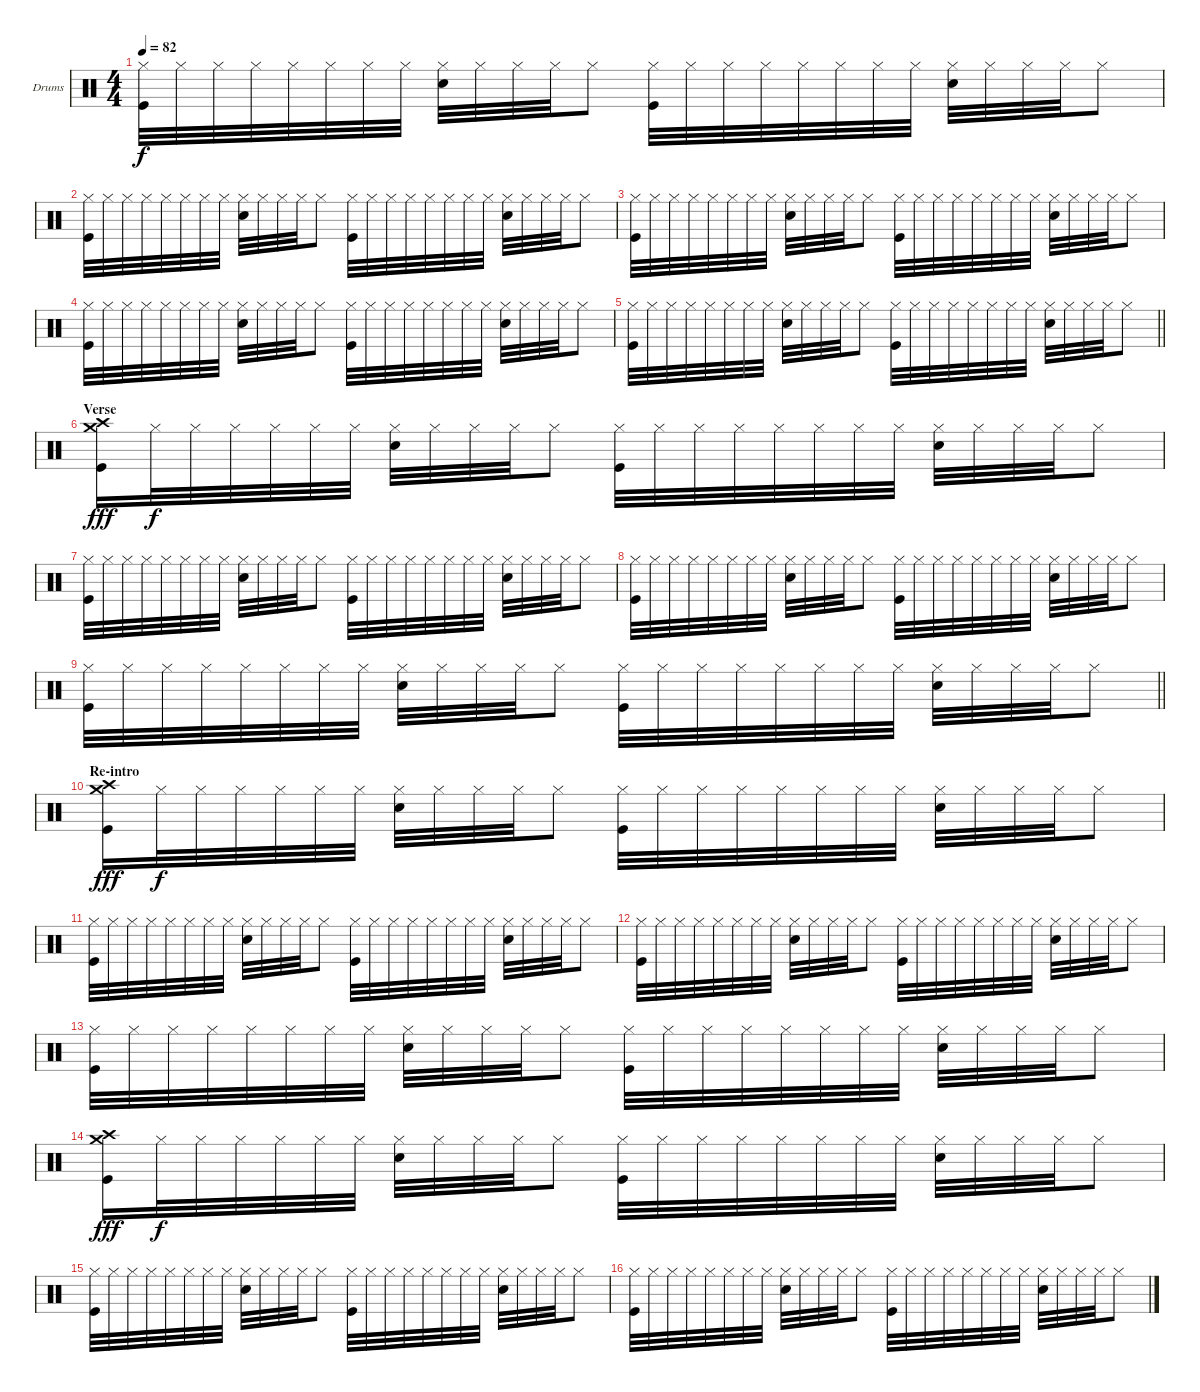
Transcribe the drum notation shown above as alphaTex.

\bracketExtendMode groupsimilarinstruments
\firstSystemTrackNameOrientation horizontal
\otherSystemsTrackNameOrientation horizontal
\track ("Drumkit" "Drums") {instrument percussion}
\staff {score}
\articulation defaults
\ts (4 4)
\tempo 82
\clef neutral
\ks c
("Hi-Hat (closed)" "Kick (hit)").32{dy f} "Hi-Hat (closed)".32 "Hi-Hat (closed)".32 "Hi-Hat (closed)".32 "Hi-Hat (closed)".32 "Hi-Hat (closed)".32 "Hi-Hat (closed)".32 "Hi-Hat (closed)".32 ("Hi-Hat (closed)" "Snare (hit) 2").32 "Hi-Hat (closed)".32 "Hi-Hat (closed)".32 "Hi-Hat (closed)".32 "Hi-Hat (closed)".8 ("Hi-Hat (closed)" "Kick (hit)").32 "Hi-Hat (closed)".32 "Hi-Hat (closed)".32 "Hi-Hat (closed)".32 "Hi-Hat (closed)".32 "Hi-Hat (closed)".32 "Hi-Hat (closed)".32 "Hi-Hat (closed)".32 ("Hi-Hat (closed)" "Snare (hit) 2").32 "Hi-Hat (closed)".32 "Hi-Hat (closed)".32 "Hi-Hat (closed)".32 "Hi-Hat (closed)".8 |
("Hi-Hat (closed)" "Kick (hit)").32 "Hi-Hat (closed)".32 "Hi-Hat (closed)".32 "Hi-Hat (closed)".32 "Hi-Hat (closed)".32 "Hi-Hat (closed)".32 "Hi-Hat (closed)".32 "Hi-Hat (closed)".32 ("Hi-Hat (closed)" "Snare (hit) 2").32 "Hi-Hat (closed)".32 "Hi-Hat (closed)".32 "Hi-Hat (closed)".32 "Hi-Hat (closed)".8 ("Hi-Hat (closed)" "Kick (hit)").32 "Hi-Hat (closed)".32 "Hi-Hat (closed)".32 "Hi-Hat (closed)".32 "Hi-Hat (closed)".32 "Hi-Hat (closed)".32 "Hi-Hat (closed)".32 "Hi-Hat (closed)".32 ("Hi-Hat (closed)" "Snare (hit) 2").32 "Hi-Hat (closed)".32 "Hi-Hat (closed)".32 "Hi-Hat (closed)".32 "Hi-Hat (closed)".8 |
("Hi-Hat (closed)" "Kick (hit)").32 "Hi-Hat (closed)".32 "Hi-Hat (closed)".32 "Hi-Hat (closed)".32 "Hi-Hat (closed)".32 "Hi-Hat (closed)".32 "Hi-Hat (closed)".32 "Hi-Hat (closed)".32 ("Hi-Hat (closed)" "Snare (hit) 2").32 "Hi-Hat (closed)".32 "Hi-Hat (closed)".32 "Hi-Hat (closed)".32 "Hi-Hat (closed)".8 ("Hi-Hat (closed)" "Kick (hit)").32 "Hi-Hat (closed)".32 "Hi-Hat (closed)".32 "Hi-Hat (closed)".32 "Hi-Hat (closed)".32 "Hi-Hat (closed)".32 "Hi-Hat (closed)".32 "Hi-Hat (closed)".32 ("Hi-Hat (closed)" "Snare (hit) 2").32 "Hi-Hat (closed)".32 "Hi-Hat (closed)".32 "Hi-Hat (closed)".32 "Hi-Hat (closed)".8 |
("Hi-Hat (closed)" "Kick (hit)").32 "Hi-Hat (closed)".32 "Hi-Hat (closed)".32 "Hi-Hat (closed)".32 "Hi-Hat (closed)".32 "Hi-Hat (closed)".32 "Hi-Hat (closed)".32 "Hi-Hat (closed)".32 ("Hi-Hat (closed)" "Snare (hit) 2").32 "Hi-Hat (closed)".32 "Hi-Hat (closed)".32 "Hi-Hat (closed)".32 "Hi-Hat (closed)".8 ("Hi-Hat (closed)" "Kick (hit)").32 "Hi-Hat (closed)".32 "Hi-Hat (closed)".32 "Hi-Hat (closed)".32 "Hi-Hat (closed)".32 "Hi-Hat (closed)".32 "Hi-Hat (closed)".32 "Hi-Hat (closed)".32 ("Hi-Hat (closed)" "Snare (hit) 2").32 "Hi-Hat (closed)".32 "Hi-Hat (closed)".32 "Hi-Hat (closed)".32 "Hi-Hat (closed)".8 |
\barLineRight lightlight
("Hi-Hat (closed)" "Kick (hit)").32 "Hi-Hat (closed)".32 "Hi-Hat (closed)".32 "Hi-Hat (closed)".32 "Hi-Hat (closed)".32 "Hi-Hat (closed)".32 "Hi-Hat (closed)".32 "Hi-Hat (closed)".32 ("Hi-Hat (closed)" "Snare (hit) 2").32 "Hi-Hat (closed)".32 "Hi-Hat (closed)".32 "Hi-Hat (closed)".32 "Hi-Hat (closed)".8 ("Hi-Hat (closed)" "Kick (hit)").32 "Hi-Hat (closed)".32 "Hi-Hat (closed)".32 "Hi-Hat (closed)".32 "Hi-Hat (closed)".32 "Hi-Hat (closed)".32 "Hi-Hat (closed)".32 "Hi-Hat (closed)".32 ("Hi-Hat (closed)" "Snare (hit) 2").32 "Hi-Hat (closed)".32 "Hi-Hat (closed)".32 "Hi-Hat (closed)".32 "Hi-Hat (closed)".8 |
\section ("" "Verse")
("Crash medium (hit)" "Crash high (hit)" "Kick (hit)").16{dy fff} "Hi-Hat (closed)".32{dy f} "Hi-Hat (closed)".32 "Hi-Hat (closed)".32 "Hi-Hat (closed)".32 "Hi-Hat (closed)".32 "Hi-Hat (closed)".32 ("Hi-Hat (closed)" "Snare (hit) 2").32 "Hi-Hat (closed)".32 "Hi-Hat (closed)".32 "Hi-Hat (closed)".32 "Hi-Hat (closed)".8 ("Hi-Hat (closed)" "Kick (hit)").32 "Hi-Hat (closed)".32 "Hi-Hat (closed)".32 "Hi-Hat (closed)".32 "Hi-Hat (closed)".32 "Hi-Hat (closed)".32 "Hi-Hat (closed)".32 "Hi-Hat (closed)".32 ("Hi-Hat (closed)" "Snare (hit) 2").32 "Hi-Hat (closed)".32 "Hi-Hat (closed)".32 "Hi-Hat (closed)".32 "Hi-Hat (closed)".8 |
("Hi-Hat (closed)" "Kick (hit)").32 "Hi-Hat (closed)".32 "Hi-Hat (closed)".32 "Hi-Hat (closed)".32 "Hi-Hat (closed)".32 "Hi-Hat (closed)".32 "Hi-Hat (closed)".32 "Hi-Hat (closed)".32 ("Hi-Hat (closed)" "Snare (hit) 2").32 "Hi-Hat (closed)".32 "Hi-Hat (closed)".32 "Hi-Hat (closed)".32 "Hi-Hat (closed)".8 ("Hi-Hat (closed)" "Kick (hit)").32 "Hi-Hat (closed)".32 "Hi-Hat (closed)".32 "Hi-Hat (closed)".32 "Hi-Hat (closed)".32 "Hi-Hat (closed)".32 "Hi-Hat (closed)".32 "Hi-Hat (closed)".32 ("Hi-Hat (closed)" "Snare (hit) 2").32 "Hi-Hat (closed)".32 "Hi-Hat (closed)".32 "Hi-Hat (closed)".32 "Hi-Hat (closed)".8 |
("Hi-Hat (closed)" "Kick (hit)").32 "Hi-Hat (closed)".32 "Hi-Hat (closed)".32 "Hi-Hat (closed)".32 "Hi-Hat (closed)".32 "Hi-Hat (closed)".32 "Hi-Hat (closed)".32 "Hi-Hat (closed)".32 ("Hi-Hat (closed)" "Snare (hit) 2").32 "Hi-Hat (closed)".32 "Hi-Hat (closed)".32 "Hi-Hat (closed)".32 "Hi-Hat (closed)".8 ("Hi-Hat (closed)" "Kick (hit)").32 "Hi-Hat (closed)".32 "Hi-Hat (closed)".32 "Hi-Hat (closed)".32 "Hi-Hat (closed)".32 "Hi-Hat (closed)".32 "Hi-Hat (closed)".32 "Hi-Hat (closed)".32 ("Hi-Hat (closed)" "Snare (hit) 2").32 "Hi-Hat (closed)".32 "Hi-Hat (closed)".32 "Hi-Hat (closed)".32 "Hi-Hat (closed)".8 |
\barLineRight lightlight
("Hi-Hat (closed)" "Kick (hit)").32 "Hi-Hat (closed)".32 "Hi-Hat (closed)".32 "Hi-Hat (closed)".32 "Hi-Hat (closed)".32 "Hi-Hat (closed)".32 "Hi-Hat (closed)".32 "Hi-Hat (closed)".32 ("Hi-Hat (closed)" "Snare (hit) 2").32 "Hi-Hat (closed)".32 "Hi-Hat (closed)".32 "Hi-Hat (closed)".32 "Hi-Hat (closed)".8 ("Hi-Hat (closed)" "Kick (hit)").32 "Hi-Hat (closed)".32 "Hi-Hat (closed)".32 "Hi-Hat (closed)".32 "Hi-Hat (closed)".32 "Hi-Hat (closed)".32 "Hi-Hat (closed)".32 "Hi-Hat (closed)".32 ("Hi-Hat (closed)" "Snare (hit) 2").32 "Hi-Hat (closed)".32 "Hi-Hat (closed)".32 "Hi-Hat (closed)".32 "Hi-Hat (closed)".8 |
\section ("" "Re-intro")
("Crash medium (hit)" "Crash high (hit)" "Kick (hit)").16{dy fff} "Hi-Hat (closed)".32{dy f} "Hi-Hat (closed)".32 "Hi-Hat (closed)".32 "Hi-Hat (closed)".32 "Hi-Hat (closed)".32 "Hi-Hat (closed)".32 ("Hi-Hat (closed)" "Snare (hit) 2").32 "Hi-Hat (closed)".32 "Hi-Hat (closed)".32 "Hi-Hat (closed)".32 "Hi-Hat (closed)".8 ("Hi-Hat (closed)" "Kick (hit)").32 "Hi-Hat (closed)".32 "Hi-Hat (closed)".32 "Hi-Hat (closed)".32 "Hi-Hat (closed)".32 "Hi-Hat (closed)".32 "Hi-Hat (closed)".32 "Hi-Hat (closed)".32 ("Hi-Hat (closed)" "Snare (hit) 2").32 "Hi-Hat (closed)".32 "Hi-Hat (closed)".32 "Hi-Hat (closed)".32 "Hi-Hat (closed)".8 |
("Hi-Hat (closed)" "Kick (hit)").32 "Hi-Hat (closed)".32 "Hi-Hat (closed)".32 "Hi-Hat (closed)".32 "Hi-Hat (closed)".32 "Hi-Hat (closed)".32 "Hi-Hat (closed)".32 "Hi-Hat (closed)".32 ("Hi-Hat (closed)" "Snare (hit) 2").32 "Hi-Hat (closed)".32 "Hi-Hat (closed)".32 "Hi-Hat (closed)".32 "Hi-Hat (closed)".8 ("Hi-Hat (closed)" "Kick (hit)").32 "Hi-Hat (closed)".32 "Hi-Hat (closed)".32 "Hi-Hat (closed)".32 "Hi-Hat (closed)".32 "Hi-Hat (closed)".32 "Hi-Hat (closed)".32 "Hi-Hat (closed)".32 ("Hi-Hat (closed)" "Snare (hit) 2").32 "Hi-Hat (closed)".32 "Hi-Hat (closed)".32 "Hi-Hat (closed)".32 "Hi-Hat (closed)".8 |
("Hi-Hat (closed)" "Kick (hit)").32 "Hi-Hat (closed)".32 "Hi-Hat (closed)".32 "Hi-Hat (closed)".32 "Hi-Hat (closed)".32 "Hi-Hat (closed)".32 "Hi-Hat (closed)".32 "Hi-Hat (closed)".32 ("Hi-Hat (closed)" "Snare (hit) 2").32 "Hi-Hat (closed)".32 "Hi-Hat (closed)".32 "Hi-Hat (closed)".32 "Hi-Hat (closed)".8 ("Hi-Hat (closed)" "Kick (hit)").32 "Hi-Hat (closed)".32 "Hi-Hat (closed)".32 "Hi-Hat (closed)".32 "Hi-Hat (closed)".32 "Hi-Hat (closed)".32 "Hi-Hat (closed)".32 "Hi-Hat (closed)".32 ("Hi-Hat (closed)" "Snare (hit) 2").32 "Hi-Hat (closed)".32 "Hi-Hat (closed)".32 "Hi-Hat (closed)".32 "Hi-Hat (closed)".8 |
("Hi-Hat (closed)" "Kick (hit)").32 "Hi-Hat (closed)".32 "Hi-Hat (closed)".32 "Hi-Hat (closed)".32 "Hi-Hat (closed)".32 "Hi-Hat (closed)".32 "Hi-Hat (closed)".32 "Hi-Hat (closed)".32 ("Hi-Hat (closed)" "Snare (hit) 2").32 "Hi-Hat (closed)".32 "Hi-Hat (closed)".32 "Hi-Hat (closed)".32 "Hi-Hat (closed)".8 ("Hi-Hat (closed)" "Kick (hit)").32 "Hi-Hat (closed)".32 "Hi-Hat (closed)".32 "Hi-Hat (closed)".32 "Hi-Hat (closed)".32 "Hi-Hat (closed)".32 "Hi-Hat (closed)".32 "Hi-Hat (closed)".32 ("Hi-Hat (closed)" "Snare (hit) 2").32 "Hi-Hat (closed)".32 "Hi-Hat (closed)".32 "Hi-Hat (closed)".32 "Hi-Hat (closed)".8 |
("Crash medium (hit)" "Crash high (hit)" "Kick (hit)").16{dy fff} "Hi-Hat (closed)".32{dy f} "Hi-Hat (closed)".32 "Hi-Hat (closed)".32 "Hi-Hat (closed)".32 "Hi-Hat (closed)".32 "Hi-Hat (closed)".32 ("Hi-Hat (closed)" "Snare (hit) 2").32 "Hi-Hat (closed)".32 "Hi-Hat (closed)".32 "Hi-Hat (closed)".32 "Hi-Hat (closed)".8 ("Hi-Hat (closed)" "Kick (hit)").32 "Hi-Hat (closed)".32 "Hi-Hat (closed)".32 "Hi-Hat (closed)".32 "Hi-Hat (closed)".32 "Hi-Hat (closed)".32 "Hi-Hat (closed)".32 "Hi-Hat (closed)".32 ("Hi-Hat (closed)" "Snare (hit) 2").32 "Hi-Hat (closed)".32 "Hi-Hat (closed)".32 "Hi-Hat (closed)".32 "Hi-Hat (closed)".8 |
("Hi-Hat (closed)" "Kick (hit)").32 "Hi-Hat (closed)".32 "Hi-Hat (closed)".32 "Hi-Hat (closed)".32 "Hi-Hat (closed)".32 "Hi-Hat (closed)".32 "Hi-Hat (closed)".32 "Hi-Hat (closed)".32 ("Hi-Hat (closed)" "Snare (hit) 2").32 "Hi-Hat (closed)".32 "Hi-Hat (closed)".32 "Hi-Hat (closed)".32 "Hi-Hat (closed)".8 ("Hi-Hat (closed)" "Kick (hit)").32 "Hi-Hat (closed)".32 "Hi-Hat (closed)".32 "Hi-Hat (closed)".32 "Hi-Hat (closed)".32 "Hi-Hat (closed)".32 "Hi-Hat (closed)".32 "Hi-Hat (closed)".32 ("Hi-Hat (closed)" "Snare (hit) 2").32 "Hi-Hat (closed)".32 "Hi-Hat (closed)".32 "Hi-Hat (closed)".32 "Hi-Hat (closed)".8 |
("Hi-Hat (closed)" "Kick (hit)").32 "Hi-Hat (closed)".32 "Hi-Hat (closed)".32 "Hi-Hat (closed)".32 "Hi-Hat (closed)".32 "Hi-Hat (closed)".32 "Hi-Hat (closed)".32 "Hi-Hat (closed)".32 ("Hi-Hat (closed)" "Snare (hit) 2").32 "Hi-Hat (closed)".32 "Hi-Hat (closed)".32 "Hi-Hat (closed)".32 "Hi-Hat (closed)".8 ("Hi-Hat (closed)" "Kick (hit)").32 "Hi-Hat (closed)".32 "Hi-Hat (closed)".32 "Hi-Hat (closed)".32 "Hi-Hat (closed)".32 "Hi-Hat (closed)".32 "Hi-Hat (closed)".32 "Hi-Hat (closed)".32 ("Hi-Hat (closed)" "Snare (hit) 2").32 "Hi-Hat (closed)".32 "Hi-Hat (closed)".32 "Hi-Hat (closed)".32 "Hi-Hat (closed)".8
